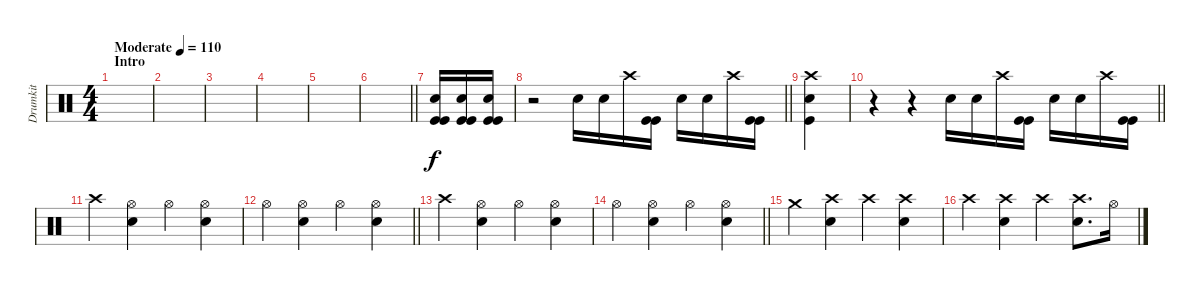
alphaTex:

\track ("Drumkit" "Drumkit") {instrument percussion}
\staff {score}
\articulation defaults
\ts (4 4)
\section ("" "Intro")
\tempo (110 "Moderate")
\clef neutral
\ks c
|
|
|
|
|
\barLineRight lightlight
|
("Electric Snare (hit)" "Kick (hit)" "Kick (hit)").16 ("Electric Snare (hit)" "Kick (hit)" "Kick (hit)").16 ("Electric Snare (hit)" "Kick (hit)" "Kick (hit)").16 |
\barLineRight lightlight
r.2 "Electric Snare (hit)".16 "Electric Snare (hit)".16{beam merge} "Crash high (hit)".16 ("Kick (hit)" "Kick (hit)").16 "Electric Snare (hit)".16 "Electric Snare (hit)".16 "Crash high (hit)".16 ("Kick (hit)" "Kick (hit)").16 |
("Crash high (hit)" "Electric Snare (hit)" "Kick (hit)").4 |
\barLineRight lightlight
r.4 r.4{beam merge} "Electric Snare (hit)".16{beam merge} "Electric Snare (hit)".16 "Crash high (hit)".16 ("Kick (hit)" "Kick (hit)").16 "Electric Snare (hit)".16{beam merge} "Electric Snare (hit)".16 "Crash high (hit)".16{beam merge} ("Kick (hit)" "Kick (hit)").16 |
"Crash high (hit)".4{beam merge} ("Hi-Hat (open)" "Electric Snare (hit)").4 "Hi-Hat (open)".4 ("Hi-Hat (open)" "Electric Snare (hit)").4 |
\barLineRight lightlight "Hi-Hat (open)".4{beam merge}
("Hi-Hat (open)" "Electric Snare (hit)").4 "Hi-Hat (open)".4 ("Hi-Hat (open)" "Electric Snare (hit)").4 |
"Crash high (hit)".4{beam merge} ("Hi-Hat (open)" "Electric Snare (hit)").4 "Hi-Hat (open)".4{beam merge} ("Hi-Hat (open)" "Electric Snare (hit)").4 |
\barLineRight lightlight "Hi-Hat (open)".4{beam merge}
("Hi-Hat (open)" "Electric Snare (hit)").4 "Hi-Hat (open)".4 ("Hi-Hat (open)" "Electric Snare (hit)").4 |
"Crash medium (hit)".4 ("Crash high (hit)" "Electric Snare (hit)").4{beam merge} "Crash high (hit)".4 ("Crash high (hit)" "Electric Snare (hit)").4 |
"Crash high (hit)".4 ("Crash high (hit)" "Electric Snare (hit)").4{beam merge} "Crash high (hit)".4 ("Crash high (hit)" "Electric Snare (hit)").8{d} "Hi-Hat (open)".16
